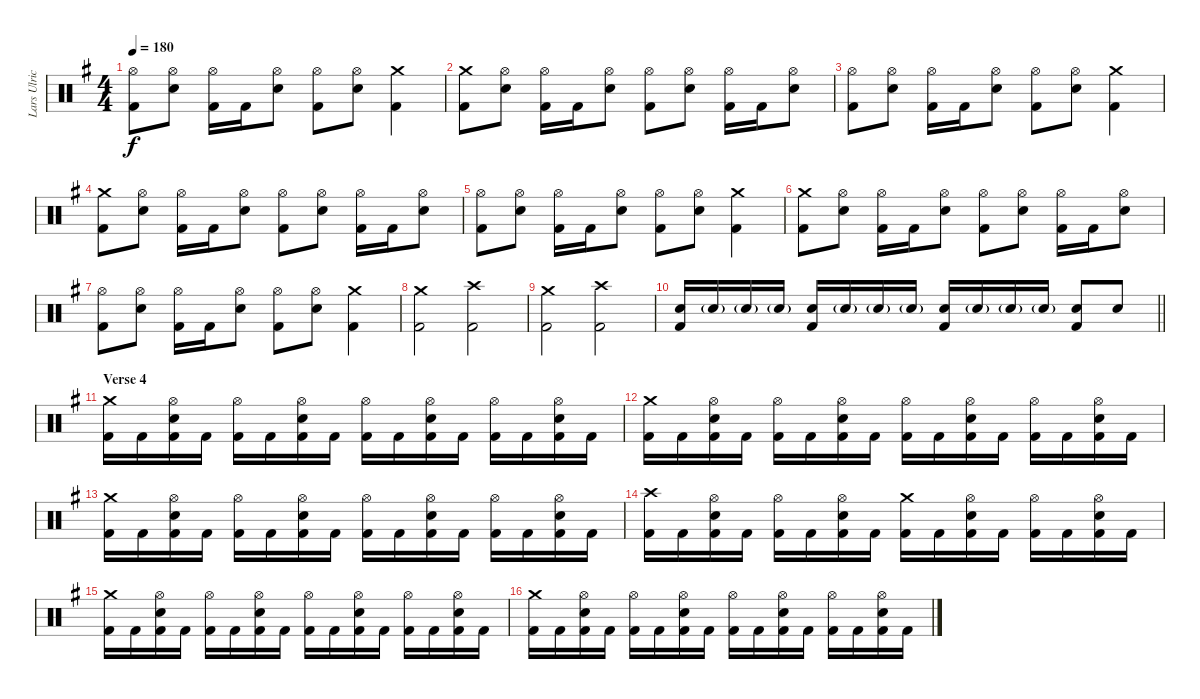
\track ("Lars Ulrich" "Lars Ulric") {instrument percussion}
\staff {score}
\articulation defaults
\ts (4 4)
\tempo 180
\clef neutral
\ks eminor
("Hi-Hat (open)" "Kick (hit) 2").8{dy f} ("Hi-Hat (open)" "Snare (hit) 2").8 ("Hi-Hat (open)" "Kick (hit) 2").16 "Kick (hit) 2".16 ("Hi-Hat (open)" "Snare (hit) 2").8 ("Hi-Hat (open)" "Kick (hit) 2").8 ("Hi-Hat (open)" "Snare (hit) 2").8 ("Crash medium (hit)" "Kick (hit) 2").4 |
("Crash medium (hit)" "Kick (hit) 2").8 ("Hi-Hat (open)" "Snare (hit) 2").8 ("Hi-Hat (open)" "Kick (hit) 2").16 "Kick (hit) 2".16 ("Hi-Hat (open)" "Snare (hit) 2").8 ("Hi-Hat (open)" "Kick (hit) 2").8 ("Hi-Hat (open)" "Snare (hit) 2").8 ("Hi-Hat (open)" "Kick (hit) 2").16 "Kick (hit) 2".16 ("Hi-Hat (open)" "Snare (hit) 2").8 |
("Hi-Hat (open)" "Kick (hit) 2").8 ("Hi-Hat (open)" "Snare (hit) 2").8 ("Hi-Hat (open)" "Kick (hit) 2").16 "Kick (hit) 2".16 ("Hi-Hat (open)" "Snare (hit) 2").8 ("Hi-Hat (open)" "Kick (hit) 2").8 ("Hi-Hat (open)" "Snare (hit) 2").8 ("Crash medium (hit)" "Kick (hit) 2").4 |
("Crash medium (hit)" "Kick (hit) 2").8 ("Hi-Hat (open)" "Snare (hit) 2").8 ("Hi-Hat (open)" "Kick (hit) 2").16 "Kick (hit) 2".16 ("Hi-Hat (open)" "Snare (hit) 2").8 ("Hi-Hat (open)" "Kick (hit) 2").8 ("Hi-Hat (open)" "Snare (hit) 2").8 ("Hi-Hat (open)" "Kick (hit) 2").16 "Kick (hit) 2".16 ("Hi-Hat (open)" "Snare (hit) 2").8 |
("Hi-Hat (open)" "Kick (hit) 2").8 ("Hi-Hat (open)" "Snare (hit) 2").8 ("Hi-Hat (open)" "Kick (hit) 2").16 "Kick (hit) 2".16 ("Hi-Hat (open)" "Snare (hit) 2").8 ("Hi-Hat (open)" "Kick (hit) 2").8 ("Hi-Hat (open)" "Snare (hit) 2").8 ("Crash medium (hit)" "Kick (hit) 2").4 |
("Crash medium (hit)" "Kick (hit) 2").8 ("Hi-Hat (open)" "Snare (hit) 2").8 ("Hi-Hat (open)" "Kick (hit) 2").16 "Kick (hit) 2".16 ("Hi-Hat (open)" "Snare (hit) 2").8 ("Hi-Hat (open)" "Kick (hit) 2").8 ("Hi-Hat (open)" "Snare (hit) 2").8 ("Hi-Hat (open)" "Kick (hit) 2").16 "Kick (hit) 2".16 ("Hi-Hat (open)" "Snare (hit) 2").8 |
("Hi-Hat (open)" "Kick (hit) 2").8 ("Hi-Hat (open)" "Snare (hit) 2").8 ("Hi-Hat (open)" "Kick (hit) 2").16 "Kick (hit) 2".16 ("Hi-Hat (open)" "Snare (hit) 2").8 ("Hi-Hat (open)" "Kick (hit) 2").8 ("Hi-Hat (open)" "Snare (hit) 2").8 ("Crash medium (hit)" "Kick (hit) 2").4 |
("Crash medium (hit)" "Kick (hit) 2").2 ("Crash high (hit)" "Kick (hit) 2").2 |
("Crash medium (hit)" "Kick (hit) 2").2 ("Crash high (hit)" "Kick (hit) 2").2 |
\barLineRight lightlight
("Snare (hit) 2" "Kick (hit) 2").16 "Snare (hit) 2"{g}.16 "Snare (hit) 2"{g}.16 "Snare (hit) 2"{g}.16 ("Snare (hit) 2" "Kick (hit) 2").16 "Snare (hit) 2"{g}.16 "Snare (hit) 2"{g}.16 "Snare (hit) 2"{g}.16 ("Snare (hit) 2" "Kick (hit) 2").16 "Snare (hit) 2"{g}.16 "Snare (hit) 2"{g}.16 "Snare (hit) 2"{g}.16 ("Snare (hit) 2" "Kick (hit) 2").8 "Snare (hit) 2".8 |
\section ("" "Verse 4")
("Crash medium (hit)" "Kick (hit) 2").16 "Kick (hit) 2".16 ("Hi-Hat (open)" "Snare (hit) 2" "Kick (hit) 2").16 "Kick (hit) 2".16 ("Hi-Hat (open)" "Kick (hit) 2").16 "Kick (hit) 2".16 ("Hi-Hat (open)" "Snare (hit) 2" "Kick (hit) 2").16 "Kick (hit) 2".16 ("Hi-Hat (open)" "Kick (hit) 2").16 "Kick (hit) 2".16 ("Hi-Hat (open)" "Snare (hit) 2" "Kick (hit) 2").16 "Kick (hit) 2".16 ("Hi-Hat (open)" "Kick (hit) 2").16 "Kick (hit) 2".16 ("Hi-Hat (open)" "Snare (hit) 2" "Kick (hit) 2").16 "Kick (hit) 2".16 |
("Crash medium (hit)" "Kick (hit) 2").16 "Kick (hit) 2".16 ("Hi-Hat (open)" "Snare (hit) 2" "Kick (hit) 2").16 "Kick (hit) 2".16 ("Hi-Hat (open)" "Kick (hit) 2").16 "Kick (hit) 2".16 ("Hi-Hat (open)" "Snare (hit) 2" "Kick (hit) 2").16 "Kick (hit) 2".16 ("Hi-Hat (open)" "Kick (hit) 2").16 "Kick (hit) 2".16 ("Hi-Hat (open)" "Snare (hit) 2" "Kick (hit) 2").16 "Kick (hit) 2".16 ("Hi-Hat (open)" "Kick (hit) 2").16 "Kick (hit) 2".16 ("Hi-Hat (open)" "Snare (hit) 2" "Kick (hit) 2").16 "Kick (hit) 2".16 |
("Crash medium (hit)" "Kick (hit) 2").16 "Kick (hit) 2".16 ("Hi-Hat (open)" "Snare (hit) 2" "Kick (hit) 2").16 "Kick (hit) 2".16 ("Hi-Hat (open)" "Kick (hit) 2").16 "Kick (hit) 2".16 ("Hi-Hat (open)" "Snare (hit) 2" "Kick (hit) 2").16 "Kick (hit) 2".16 ("Hi-Hat (open)" "Kick (hit) 2").16 "Kick (hit) 2".16 ("Hi-Hat (open)" "Snare (hit) 2" "Kick (hit) 2").16 "Kick (hit) 2".16 ("Hi-Hat (open)" "Kick (hit) 2").16 "Kick (hit) 2".16 ("Hi-Hat (open)" "Snare (hit) 2" "Kick (hit) 2").16 "Kick (hit) 2".16 |
("Crash high (hit)" "Kick (hit) 2").16 "Kick (hit) 2".16 ("Hi-Hat (open)" "Snare (hit) 2" "Kick (hit) 2").16 "Kick (hit) 2".16 ("Hi-Hat (open)" "Kick (hit) 2").16 "Kick (hit) 2".16 ("Hi-Hat (open)" "Snare (hit) 2" "Kick (hit) 2").16 "Kick (hit) 2".16 ("Crash medium (hit)" "Kick (hit) 2").16 "Kick (hit) 2".16 ("Hi-Hat (open)" "Snare (hit) 2" "Kick (hit) 2").16 "Kick (hit) 2".16 ("Hi-Hat (open)" "Kick (hit) 2").16 "Kick (hit) 2".16 ("Hi-Hat (open)" "Snare (hit) 2" "Kick (hit) 2").16 "Kick (hit) 2".16 |
("Crash medium (hit)" "Kick (hit) 2").16 "Kick (hit) 2".16 ("Hi-Hat (open)" "Snare (hit) 2" "Kick (hit) 2").16 "Kick (hit) 2".16 ("Hi-Hat (open)" "Kick (hit) 2").16 "Kick (hit) 2".16 ("Hi-Hat (open)" "Snare (hit) 2" "Kick (hit) 2").16 "Kick (hit) 2".16 ("Hi-Hat (open)" "Kick (hit) 2").16 "Kick (hit) 2".16 ("Hi-Hat (open)" "Snare (hit) 2" "Kick (hit) 2").16 "Kick (hit) 2".16 ("Hi-Hat (open)" "Kick (hit) 2").16 "Kick (hit) 2".16 ("Hi-Hat (open)" "Snare (hit) 2" "Kick (hit) 2").16 "Kick (hit) 2".16 |
("Crash medium (hit)" "Kick (hit) 2").16 "Kick (hit) 2".16 ("Hi-Hat (open)" "Snare (hit) 2" "Kick (hit) 2").16 "Kick (hit) 2".16 ("Hi-Hat (open)" "Kick (hit) 2").16 "Kick (hit) 2".16 ("Hi-Hat (open)" "Snare (hit) 2" "Kick (hit) 2").16 "Kick (hit) 2".16 ("Hi-Hat (open)" "Kick (hit) 2").16 "Kick (hit) 2".16 ("Hi-Hat (open)" "Snare (hit) 2" "Kick (hit) 2").16 "Kick (hit) 2".16 ("Hi-Hat (open)" "Kick (hit) 2").16 "Kick (hit) 2".16 ("Hi-Hat (open)" "Snare (hit) 2" "Kick (hit) 2").16 "Kick (hit) 2".16
